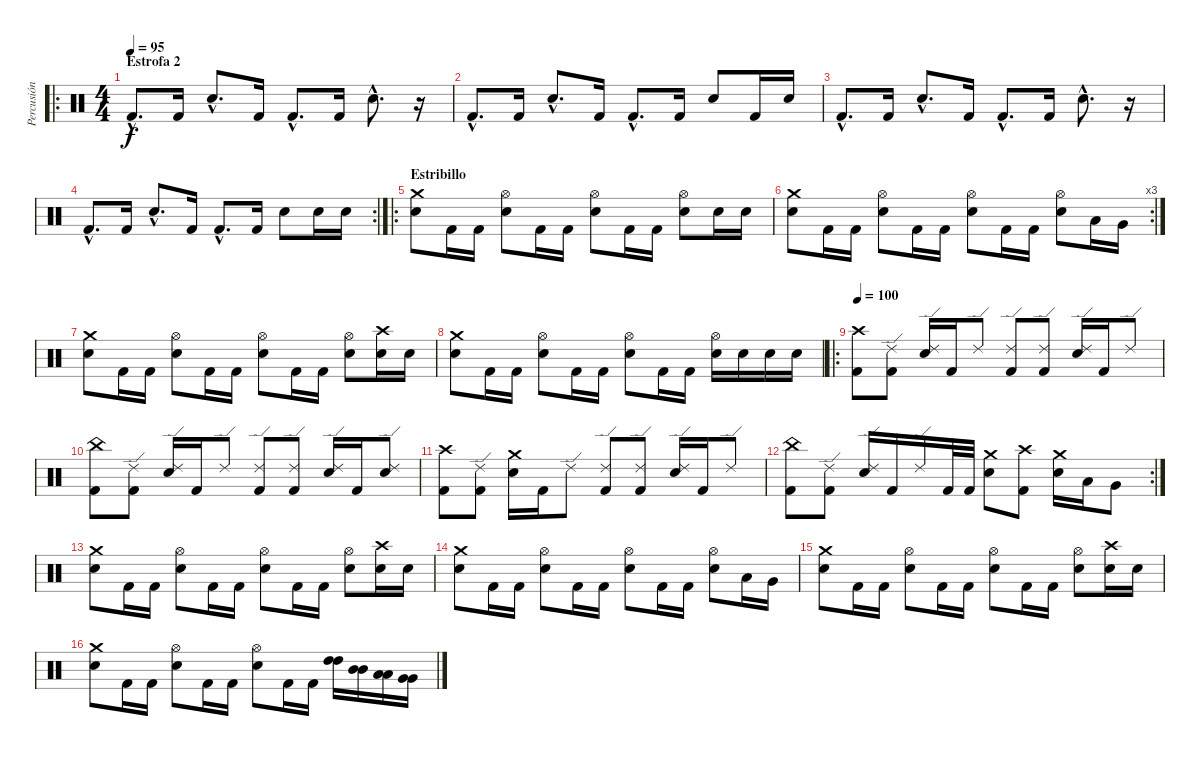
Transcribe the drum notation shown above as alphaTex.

\track ("Percusión" "Percusión") {instrument percussion}
\staff {score}
\articulation defaults
\ro
\ts (4 4)
\section ("" "Estrofa 2")
\tempo 95
\clef neutral
\ks c "Kick (hit) 2"{hac}.8{d dy f} "Kick (hit) 2".16 "Electric Snare (hit)"{hac}.8{d} "Kick (hit) 2".16 "Kick (hit) 2"{hac}.8{d} "Kick (hit) 2".16 "Electric Snare (hit)"{hac}.8{d}
r.16 |
"Kick (hit) 2"{hac}.8{d} "Kick (hit) 2".16 "Electric Snare (hit)"{hac}.8{d} "Kick (hit) 2".16 "Kick (hit) 2"{hac}.8{d} "Kick (hit) 2".16 "Electric Snare (hit)".8 "Kick (hit) 2".16 "Electric Snare (hit)".16 |
"Kick (hit) 2"{hac}.8{d} "Kick (hit) 2".16 "Electric Snare (hit)"{hac}.8{d} "Kick (hit) 2".16 "Kick (hit) 2"{hac}.8{d} "Kick (hit) 2".16 "Electric Snare (hit)"{hac}.8{d} r.16 |
\rc 2 "Kick (hit) 2"{hac}.8{d} "Kick (hit) 2".16 "Electric Snare (hit)"{hac}.8{d} "Kick (hit) 2".16 "Kick (hit) 2"{hac}.8{d} "Kick (hit) 2".16 "Electric Snare (hit)".8 "Electric Snare (hit)".16 "Electric Snare (hit)".16
|
\ro
\section ("" "Estribillo")
("Crash medium (hit)" "Electric Snare (hit)").8 "Kick (hit) 2".16 "Kick (hit) 2".16 ("Hi-Hat (open)" "Electric Snare (hit)").8 "Kick (hit) 2".16 "Kick (hit) 2".16 ("Hi-Hat (open)" "Electric Snare (hit)").8 "Kick (hit) 2".16 "Kick (hit) 2".16 ("Hi-Hat (open)" "Electric Snare (hit)").8 "Electric Snare (hit)".16 "Electric Snare (hit)".16 |
\rc 3
("Crash medium (hit)" "Electric Snare (hit)").8 "Kick (hit) 2".16 "Kick (hit) 2".16 ("Hi-Hat (open)" "Electric Snare (hit)").8 "Kick (hit) 2".16 "Kick (hit) 2".16 ("Hi-Hat (open)" "Electric Snare (hit)").8 "Kick (hit) 2".16 "Kick (hit) 2".16 ("Hi-Hat (open)" "Electric Snare (hit)").8 "Low Tom (hit)".16 "Very Low Tom (hit)".16 |
("Crash medium (hit)" "Electric Snare (hit)").8 "Kick (hit) 2".16 "Kick (hit) 2".16 ("Hi-Hat (open)" "Electric Snare (hit)").8 "Kick (hit) 2".16 "Kick (hit) 2".16 ("Hi-Hat (open)" "Electric Snare (hit)").8 "Kick (hit) 2".16 "Kick (hit) 2".16 ("Hi-Hat (open)" "Electric Snare (hit)").8 ("Crash high (hit)" "Electric Snare (hit)").16 "Electric Snare (hit)".16 |
("Crash medium (hit)" "Electric Snare (hit)").8 "Kick (hit) 2".16 "Kick (hit) 2".16 ("Hi-Hat (open)" "Electric Snare (hit)").8 "Kick (hit) 2".16 "Kick (hit) 2".16 ("Hi-Hat (open)" "Electric Snare (hit)").8 "Kick (hit) 2".16 "Kick (hit) 2".16 ("Hi-Hat (open)" "Electric Snare (hit)").16 "Electric Snare (hit)".16 "Electric Snare (hit)".16 "Electric Snare (hit)".16 |
\ro
\tempo 100
("Crash high (hit)" "Kick (hit) 2").8 ("Ride (edge) 2" "Kick (hit) 2").8 ("Ride (edge) 2" "Electric Snare (hit)").16 "Kick (hit) 2".16 "Ride (edge) 2".8 ("Ride (edge) 2" "Kick (hit) 2").8 ("Ride (edge) 2" "Kick (hit) 2").8 ("Ride (edge) 2" "Electric Snare (hit)").16 "Kick (hit) 2".16 "Ride (edge) 2".8 |
("China (hit)" "Kick (hit) 2").8 ("Ride (edge) 2" "Kick (hit) 2").8 ("Ride (edge) 2" "Electric Snare (hit)").16 "Kick (hit) 2".16 "Ride (edge) 2".8 ("Ride (edge) 2" "Kick (hit) 2").8 ("Ride (edge) 2" "Kick (hit) 2").8 ("Ride (edge) 2" "Electric Snare (hit)").16 "Kick (hit) 2".16 ("Ride (edge) 2" "Electric Snare (hit)").8 |
("Crash high (hit)" "Kick (hit) 2").8 ("Ride (edge) 2" "Kick (hit) 2").8 ("Crash medium (hit)" "Electric Snare (hit)").16 "Kick (hit) 2".16 "Ride (edge) 2".8 ("Ride (edge) 2" "Kick (hit) 2").8 ("Ride (edge) 2" "Kick (hit) 2").8 ("Ride (edge) 2" "Electric Snare (hit)").16 "Kick (hit) 2".16 "Ride (edge) 2".8 |
\rc 2
("China (hit)" "Kick (hit) 2").8 ("Ride (edge) 2" "Kick (hit) 2").8 ("Ride (edge) 2" "Electric Snare (hit)").16 "Kick (hit) 2".16 "Ride (edge) 2".16 "Kick (hit) 2".32 "Kick (hit) 2".32 ("Crash medium (hit)" "Electric Snare (hit)").8 ("Crash high (hit)" "Kick (hit) 2").8 ("Crash medium (hit)" "Electric Snare (hit)").16 "Low Tom (hit)".16 "Very Low Tom (hit)".8 |
("Crash medium (hit)" "Electric Snare (hit)").8 "Kick (hit) 2".16 "Kick (hit) 2".16 ("Hi-Hat (open)" "Electric Snare (hit)").8 "Kick (hit) 2".16 "Kick (hit) 2".16 ("Hi-Hat (open)" "Electric Snare (hit)").8 "Kick (hit) 2".16 "Kick (hit) 2".16 ("Hi-Hat (open)" "Electric Snare (hit)").8 ("Crash high (hit)" "Electric Snare (hit)").16 "Electric Snare (hit)".16 |
("Crash medium (hit)" "Electric Snare (hit)").8 "Kick (hit) 2".16 "Kick (hit) 2".16 ("Hi-Hat (open)" "Electric Snare (hit)").8 "Kick (hit) 2".16 "Kick (hit) 2".16 ("Hi-Hat (open)" "Electric Snare (hit)").8 "Kick (hit) 2".16 "Kick (hit) 2".16 ("Hi-Hat (open)" "Electric Snare (hit)").8 "Low Tom (hit)".16 "Very Low Tom (hit)".16 |
("Crash medium (hit)" "Electric Snare (hit)").8 "Kick (hit) 2".16 "Kick (hit) 2".16 ("Hi-Hat (open)" "Electric Snare (hit)").8 "Kick (hit) 2".16 "Kick (hit) 2".16 ("Hi-Hat (open)" "Electric Snare (hit)").8 "Kick (hit) 2".16 "Kick (hit) 2".16 ("Hi-Hat (open)" "Electric Snare (hit)").8 ("Crash high (hit)" "Electric Snare (hit)").16 "Electric Snare (hit)".16 |
("Crash medium (hit)" "Electric Snare (hit)").8 "Kick (hit) 2".16 "Kick (hit) 2".16 ("Hi-Hat (open)" "Electric Snare (hit)").8 "Kick (hit) 2".16 "Kick (hit) 2".16 ("Hi-Hat (open)" "Electric Snare (hit)").8 "Kick (hit) 2".16 "Kick (hit) 2".16 ("High Tom (hit)" "High Tom (hit)").16 ("Mid Tom (hit)" "Mid Tom (hit)").16 ("Low Tom (hit)" "Low Tom (hit)").16 ("Very Low Tom (hit)" "Very Low Tom (hit)").16
